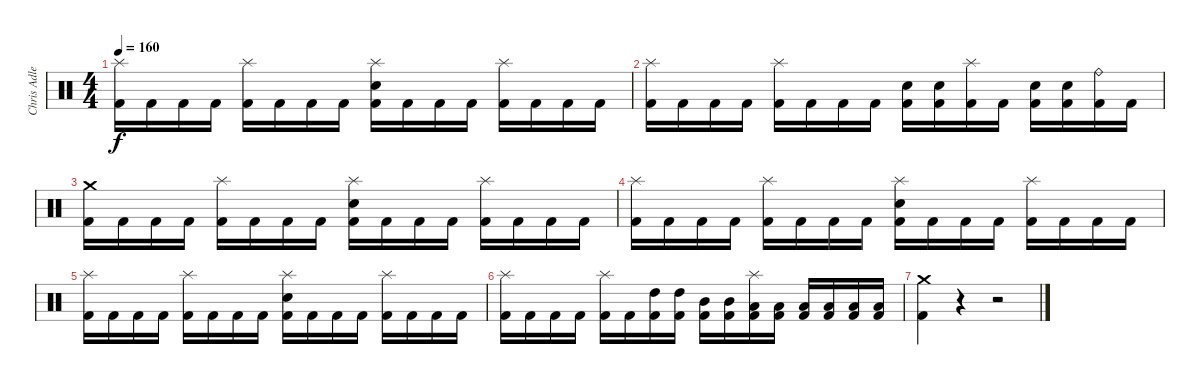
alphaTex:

\track ("Chris Adler" "Chris Adle") {instrument percussion}
\staff {score}
\articulation defaults
\ts (4 4)
\tempo 160
\clef neutral
\ks c
("Splash (hit)" "Kick (hit) 2").16{dy f} "Kick (hit) 2".16 "Kick (hit) 2".16 "Kick (hit) 2".16 ("Splash (hit)" "Kick (hit) 2").16 "Kick (hit) 2".16 "Kick (hit) 2".16 "Kick (hit) 2".16 ("Splash (hit)" "Electric Snare (hit)" "Kick (hit) 2").16 "Kick (hit) 2".16 "Kick (hit) 2".16 "Kick (hit) 2".16 ("Splash (hit)" "Kick (hit) 2").16 "Kick (hit) 2".16 "Kick (hit) 2".16 "Kick (hit) 2".16 |
("Splash (hit)" "Kick (hit) 2").16 "Kick (hit) 2".16 "Kick (hit) 2".16 "Kick (hit) 2".16 ("Splash (hit)" "Kick (hit) 2").16 "Kick (hit) 2".16 "Kick (hit) 2".16 "Kick (hit) 2".16 ("Electric Snare (hit)" "Kick (hit) 2").16 ("Electric Snare (hit)" "Kick (hit) 2").16 ("Splash (hit)" "Kick (hit) 2").16 "Kick (hit) 2".16 ("Electric Snare (hit)" "Kick (hit) 2").16 ("Electric Snare (hit)" "Kick (hit) 2").16 ("Ride (bell)" "Kick (hit) 2").16 "Kick (hit) 2".16 |
("Crash medium (hit)" "Kick (hit) 2").16 "Kick (hit) 2".16 "Kick (hit) 2".16 "Kick (hit) 2".16 ("Splash (hit)" "Kick (hit) 2").16 "Kick (hit) 2".16 "Kick (hit) 2".16 "Kick (hit) 2".16 ("Splash (hit)" "Electric Snare (hit)" "Kick (hit) 2").16 "Kick (hit) 2".16 "Kick (hit) 2".16 "Kick (hit) 2".16 ("Splash (hit)" "Kick (hit) 2").16 "Kick (hit) 2".16 "Kick (hit) 2".16 "Kick (hit) 2".16 |
("Splash (hit)" "Kick (hit) 2").16 "Kick (hit) 2".16 "Kick (hit) 2".16 "Kick (hit) 2".16 ("Splash (hit)" "Kick (hit) 2").16 "Kick (hit) 2".16 "Kick (hit) 2".16 "Kick (hit) 2".16 ("Splash (hit)" "Electric Snare (hit)" "Kick (hit) 2").16 "Kick (hit) 2".16 "Kick (hit) 2".16 "Kick (hit) 2".16 ("Splash (hit)" "Kick (hit) 2").16 "Kick (hit) 2".16 "Kick (hit) 2".16 "Kick (hit) 2".16 |
("Splash (hit)" "Kick (hit) 2").16 "Kick (hit) 2".16 "Kick (hit) 2".16 "Kick (hit) 2".16 ("Splash (hit)" "Kick (hit) 2").16 "Kick (hit) 2".16 "Kick (hit) 2".16 "Kick (hit) 2".16 ("Splash (hit)" "Electric Snare (hit)" "Kick (hit) 2").16 "Kick (hit) 2".16 "Kick (hit) 2".16 "Kick (hit) 2".16 ("Splash (hit)" "Kick (hit) 2").16 "Kick (hit) 2".16 "Kick (hit) 2".16 "Kick (hit) 2".16 |
("Splash (hit)" "Kick (hit) 2").16 "Kick (hit) 2".16 "Kick (hit) 2".16 "Kick (hit) 2".16 ("Splash (hit)" "Kick (hit) 2").16 "Kick (hit) 2".16 ("High Tom (hit)" "Kick (hit) 2").16 ("High Tom (hit)" "Kick (hit) 2").16 ("Mid Tom (hit)" "Kick (hit) 2").16 ("Mid Tom (hit)" "Kick (hit) 2").16 ("Splash (hit)" "Low Tom (hit)" "Kick (hit) 2").16 ("Low Tom (hit)" "Kick (hit) 2").16 ("Low Tom (hit)" "Kick (hit) 2").16 ("Low Tom (hit)" "Kick (hit) 2").16 ("Low Floor Tom (hit)" "Kick (hit) 2").16 ("Low Floor Tom (hit)" "Kick (hit) 2").16 |
("Crash medium (hit)" "Kick (hit) 2").4 r.4{volume 0} r.2
